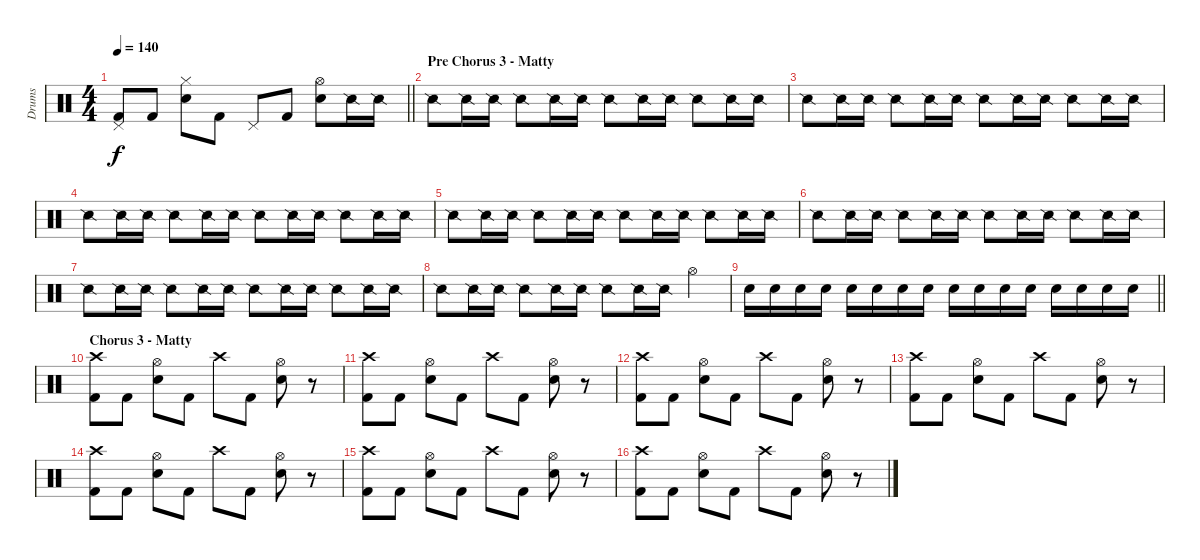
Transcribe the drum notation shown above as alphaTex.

\track ("Drums" "Drums") {instrument percussion bank 127}
\staff {score}
\articulation defaults
\ts (4 4)
\tempo 140
\clef neutral
\barLineRight lightlight
\ks c
("Pedal Hi-Hat (hit)" "Kick (hit) 2").8{dy f} "Kick (hit) 2".8 ("Hi-Hat (closed)" "Electric Snare (hit)").8 "Kick (hit) 2".8 "Pedal Hi-Hat (hit)".8 "Kick (hit) 2".8 ("Hi-Hat (open)" "Electric Snare (hit)").8 "Snare (side stick) 2".16 "Snare (side stick) 2".16 |
\section ("" "Pre Chorus 3 - Matty")
"Snare (side stick) 2".8 "Snare (side stick) 2".16 "Snare (side stick) 2".16 "Snare (side stick) 2".8 "Snare (side stick) 2".16 "Snare (side stick) 2".16 "Snare (side stick) 2".8 "Snare (side stick) 2".16 "Snare (side stick) 2".16 "Snare (side stick) 2".8 "Snare (side stick) 2".16 "Snare (side stick) 2".16 |
"Snare (side stick) 2".8 "Snare (side stick) 2".16 "Snare (side stick) 2".16 "Snare (side stick) 2".8 "Snare (side stick) 2".16 "Snare (side stick) 2".16 "Snare (side stick) 2".8 "Snare (side stick) 2".16 "Snare (side stick) 2".16 "Snare (side stick) 2".8 "Snare (side stick) 2".16 "Snare (side stick) 2".16 |
"Snare (side stick) 2".8 "Snare (side stick) 2".16 "Snare (side stick) 2".16 "Snare (side stick) 2".8 "Snare (side stick) 2".16 "Snare (side stick) 2".16 "Snare (side stick) 2".8 "Snare (side stick) 2".16 "Snare (side stick) 2".16 "Snare (side stick) 2".8 "Snare (side stick) 2".16 "Snare (side stick) 2".16 |
"Snare (side stick) 2".8 "Snare (side stick) 2".16 "Snare (side stick) 2".16 "Snare (side stick) 2".8 "Snare (side stick) 2".16 "Snare (side stick) 2".16 "Snare (side stick) 2".8 "Snare (side stick) 2".16 "Snare (side stick) 2".16 "Snare (side stick) 2".8 "Snare (side stick) 2".16 "Snare (side stick) 2".16 |
"Snare (side stick) 2".8 "Snare (side stick) 2".16 "Snare (side stick) 2".16 "Snare (side stick) 2".8 "Snare (side stick) 2".16 "Snare (side stick) 2".16 "Snare (side stick) 2".8 "Snare (side stick) 2".16 "Snare (side stick) 2".16 "Snare (side stick) 2".8 "Snare (side stick) 2".16 "Snare (side stick) 2".16 |
"Snare (side stick) 2".8 "Snare (side stick) 2".16 "Snare (side stick) 2".16 "Snare (side stick) 2".8 "Snare (side stick) 2".16 "Snare (side stick) 2".16 "Snare (side stick) 2".8 "Snare (side stick) 2".16 "Snare (side stick) 2".16 "Snare (side stick) 2".8 "Snare (side stick) 2".16 "Snare (side stick) 2".16 |
"Snare (side stick) 2".8 "Snare (side stick) 2".16 "Snare (side stick) 2".16 "Snare (side stick) 2".8 "Snare (side stick) 2".16 "Snare (side stick) 2".16 "Snare (side stick) 2".8 "Snare (side stick) 2".16 "Snare (side stick) 2".16 "Hi-Hat (open)".4 |
\barLineRight lightlight "Electric Snare (hit)".16 "Electric Snare (hit)".16 "Electric Snare (hit)".16 "Electric Snare (hit)".16 "Electric Snare (hit)".16 "Electric Snare (hit)".16 "Electric Snare (hit)".16 "Electric Snare (hit)".16 "Electric Snare (hit)".16 "Electric Snare (hit)".16 "Electric Snare (hit)".16 "Electric Snare (hit)".16 "Electric Snare (hit)".16 "Electric Snare (hit)".16 "Electric Snare (hit)".16 "Electric Snare (hit)".16
|
\section ("" "Chorus 3 - Matty")
("Crash high (hit)" "Kick (hit) 2").8 "Kick (hit) 2".8 ("Hi-Hat (open)" "Electric Snare (hit)").8 "Kick (hit) 2".8 "Crash high (hit)".8 "Kick (hit) 2".8 ("Hi-Hat (open)" "Electric Snare (hit)").8 r.8 |
("Crash high (hit)" "Kick (hit) 2").8 "Kick (hit) 2".8 ("Hi-Hat (open)" "Electric Snare (hit)").8 "Kick (hit) 2".8 "Crash high (hit)".8 "Kick (hit) 2".8 ("Hi-Hat (open)" "Electric Snare (hit)").8 r.8 |
("Crash high (hit)" "Kick (hit) 2").8 "Kick (hit) 2".8 ("Hi-Hat (open)" "Electric Snare (hit)").8 "Kick (hit) 2".8 "Crash high (hit)".8 "Kick (hit) 2".8 ("Hi-Hat (open)" "Electric Snare (hit)").8 r.8 |
("Crash high (hit)" "Kick (hit) 2").8 "Kick (hit) 2".8 ("Hi-Hat (open)" "Electric Snare (hit)").8 "Kick (hit) 2".8 "Crash high (hit)".8 "Kick (hit) 2".8 ("Hi-Hat (open)" "Electric Snare (hit)").8 r.8 |
("Crash high (hit)" "Kick (hit) 2").8 "Kick (hit) 2".8 ("Hi-Hat (open)" "Electric Snare (hit)").8 "Kick (hit) 2".8 "Crash high (hit)".8 "Kick (hit) 2".8 ("Hi-Hat (open)" "Electric Snare (hit)").8 r.8 |
("Crash high (hit)" "Kick (hit) 2").8 "Kick (hit) 2".8 ("Hi-Hat (open)" "Electric Snare (hit)").8 "Kick (hit) 2".8 "Crash high (hit)".8 "Kick (hit) 2".8 ("Hi-Hat (open)" "Electric Snare (hit)").8 r.8 |
("Crash high (hit)" "Kick (hit) 2").8 "Kick (hit) 2".8 ("Hi-Hat (open)" "Electric Snare (hit)").8 "Kick (hit) 2".8 "Crash high (hit)".8 "Kick (hit) 2".8 ("Hi-Hat (open)" "Electric Snare (hit)").8 r.8
